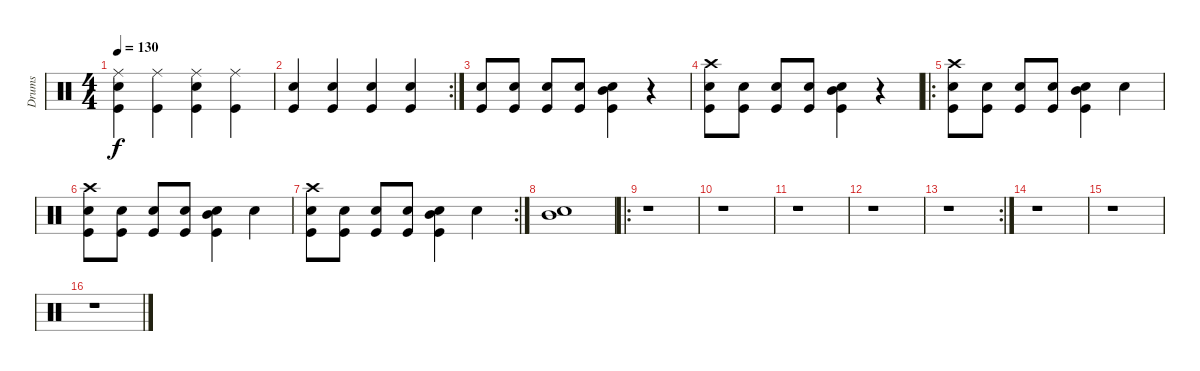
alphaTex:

\track ("Drums" "Drums") {instrument percussion}
\staff {score}
\articulation defaults
\ts (4 4)
\tempo 130
\clef neutral
\ks c
("Ride (middle)" "Snare (hit) 2" "Kick (hit)").4{dy f} ("Ride (middle)" "Kick (hit)").4 ("Ride (middle)" "Snare (hit) 2" "Kick (hit)").4 ("Ride (middle)" "Kick (hit)").4 |
\rc 2
("Snare (hit) 2" "Kick (hit)").4 ("Snare (hit) 2" "Kick (hit)").4 ("Snare (hit) 2" "Kick (hit)").4 ("Snare (hit) 2" "Kick (hit)").4 |
("Snare (hit) 2" "Kick (hit)").8 ("Snare (hit) 2" "Kick (hit)").8 ("Snare (hit) 2" "Kick (hit)").8 ("Snare (hit) 2" "Kick (hit)").8 ("Snare (hit) 2" "Mid Tom (hit)" "Kick (hit)").4 r.4 |
("Crash high (hit)" "Snare (hit) 2" "Kick (hit)").8 ("Snare (hit) 2" "Kick (hit)").8 ("Snare (hit) 2" "Kick (hit)").8 ("Snare (hit) 2" "Kick (hit)").8 ("Snare (hit) 2" "Mid Tom (hit)" "Kick (hit)").4 r.4 |
\ro
("Crash high (hit)" "Snare (hit) 2" "Kick (hit)").8 ("Snare (hit) 2" "Kick (hit)").8 ("Snare (hit) 2" "Kick (hit)").8 ("Snare (hit) 2" "Kick (hit)").8 ("Snare (hit) 2" "Mid Tom (hit)" "Kick (hit)").4 "Snare (hit) 2".4 |
("Crash high (hit)" "Snare (hit) 2" "Kick (hit)").8 ("Snare (hit) 2" "Kick (hit)").8 ("Snare (hit) 2" "Kick (hit)").8 ("Snare (hit) 2" "Kick (hit)").8 ("Snare (hit) 2" "Mid Tom (hit)" "Kick (hit)").4 "Snare (hit) 2".4 |
\rc 2
("Crash high (hit)" "Snare (hit) 2" "Kick (hit)").8 ("Snare (hit) 2" "Kick (hit)").8 ("Snare (hit) 2" "Kick (hit)").8 ("Snare (hit) 2" "Kick (hit)").8 ("Snare (hit) 2" "Mid Tom (hit)" "Kick (hit)").4 "Snare (hit) 2".4 |
("Snare (hit) 2" "Mid Tom (hit)").1 |
\ro
r.1 |
r.1 |
r.1 |
r.1 |
\rc 2
r.1 |
r.1 |
r.1 |
r.1
